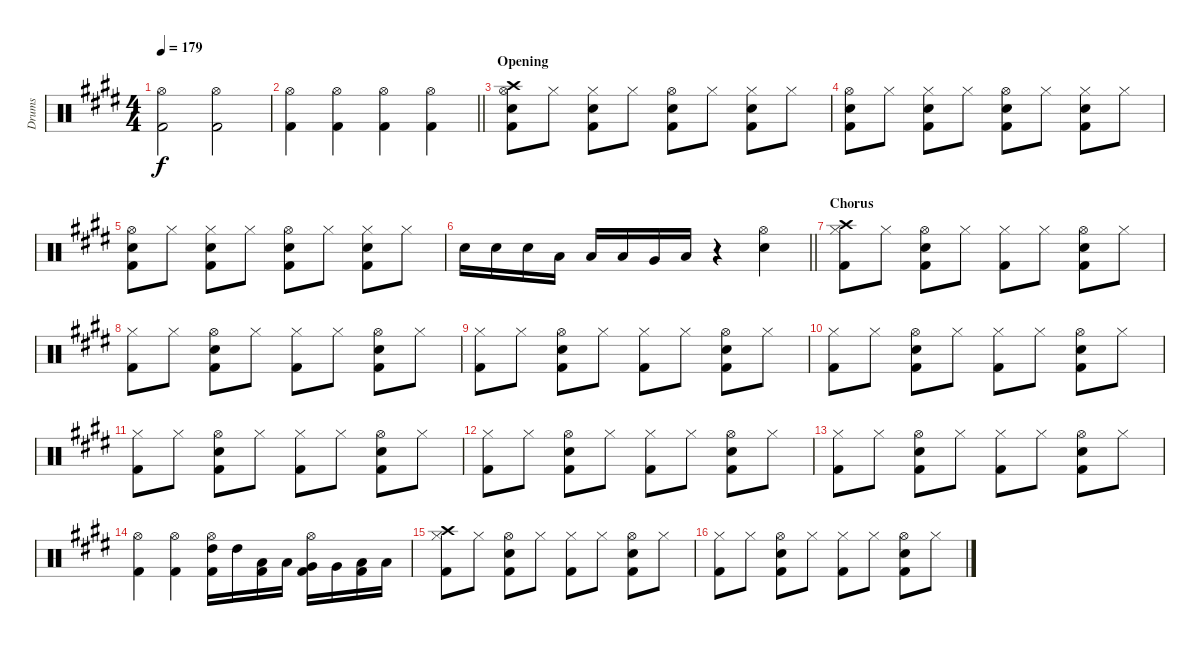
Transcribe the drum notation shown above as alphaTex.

\track ("Drums" "Drums") {instrument percussion}
\staff {score}
\articulation defaults
\ts (4 4)
\tempo 179
\clef neutral
\ks e
("Hi-Hat (open)" "Kick (hit) 2").2{dy f} ("Hi-Hat (open)" "Kick (hit) 2").2 |
\barLineRight lightlight
("Hi-Hat (open)" "Kick (hit) 2").4 ("Hi-Hat (open)" "Kick (hit) 2").4 ("Hi-Hat (open)" "Kick (hit) 2").4 ("Hi-Hat (open)" "Kick (hit) 2").4 |
\section ("" "Opening")
("Hi-Hat (open)" "Snare (hit) 2" "Crash high (hit)" "Kick (hit) 2").8 "Hi-Hat (closed)".8 ("Hi-Hat (closed)" "Snare (hit) 2" "Kick (hit) 2").8 "Hi-Hat (closed)".8 ("Hi-Hat (open)" "Snare (hit) 2" "Kick (hit) 2").8 "Hi-Hat (closed)".8 ("Hi-Hat (closed)" "Snare (hit) 2" "Kick (hit) 2").8 "Hi-Hat (closed)".8 |
("Hi-Hat (open)" "Snare (hit) 2" "Kick (hit) 2").8 "Hi-Hat (closed)".8 ("Hi-Hat (closed)" "Snare (hit) 2" "Kick (hit) 2").8 "Hi-Hat (closed)".8 ("Hi-Hat (open)" "Snare (hit) 2" "Kick (hit) 2").8 "Hi-Hat (closed)".8 ("Hi-Hat (closed)" "Snare (hit) 2" "Kick (hit) 2").8 "Hi-Hat (closed)".8 |
("Hi-Hat (open)" "Snare (hit) 2" "Kick (hit) 2").8 "Hi-Hat (closed)".8 ("Hi-Hat (closed)" "Snare (hit) 2" "Kick (hit) 2").8 "Hi-Hat (closed)".8 ("Hi-Hat (open)" "Snare (hit) 2" "Kick (hit) 2").8 "Hi-Hat (closed)".8 ("Hi-Hat (closed)" "Snare (hit) 2" "Kick (hit) 2").8 "Hi-Hat (closed)".8 |
\barLineRight lightlight "Snare (hit) 2".16 "Snare (hit) 2".16 "Snare (hit) 2".16 "Low Tom (hit)".16 "Low Tom (hit)".16 "Low Tom (hit)".16 "Very Low Tom (hit)".16 "Low Floor Tom (hit)".16
r.4 ("Hi-Hat (open)" "Snare (hit) 2").4 |
\section ("" "Chorus")
("Hi-Hat (closed)" "Crash high (hit)" "Kick (hit) 2").8 "Hi-Hat (closed)".8 ("Hi-Hat (open)" "Snare (hit) 2" "Kick (hit) 2").8 "Hi-Hat (closed)".8 ("Hi-Hat (closed)" "Kick (hit) 2").8 "Hi-Hat (closed)".8 ("Hi-Hat (open)" "Snare (hit) 2" "Kick (hit) 2").8 "Hi-Hat (closed)".8 |
("Hi-Hat (closed)" "Kick (hit) 2").8 "Hi-Hat (closed)".8 ("Hi-Hat (open)" "Snare (hit) 2" "Kick (hit) 2").8 "Hi-Hat (closed)".8 ("Hi-Hat (closed)" "Kick (hit) 2").8 "Hi-Hat (closed)".8 ("Hi-Hat (open)" "Snare (hit) 2" "Kick (hit) 2").8 "Hi-Hat (closed)".8 |
("Hi-Hat (closed)" "Kick (hit) 2").8 "Hi-Hat (closed)".8 ("Hi-Hat (open)" "Snare (hit) 2" "Kick (hit) 2").8 "Hi-Hat (closed)".8 ("Hi-Hat (closed)" "Kick (hit) 2").8 "Hi-Hat (closed)".8 ("Hi-Hat (open)" "Snare (hit) 2" "Kick (hit) 2").8 "Hi-Hat (closed)".8 |
("Hi-Hat (closed)" "Kick (hit) 2").8 "Hi-Hat (closed)".8 ("Hi-Hat (open)" "Snare (hit) 2" "Kick (hit) 2").8 "Hi-Hat (closed)".8 ("Hi-Hat (closed)" "Kick (hit) 2").8 "Hi-Hat (closed)".8 ("Hi-Hat (open)" "Snare (hit) 2" "Kick (hit) 2").8 "Hi-Hat (closed)".8 |
("Hi-Hat (closed)" "Kick (hit) 2").8 "Hi-Hat (closed)".8 ("Hi-Hat (open)" "Snare (hit) 2" "Kick (hit) 2").8 "Hi-Hat (closed)".8 ("Hi-Hat (closed)" "Kick (hit) 2").8 "Hi-Hat (closed)".8 ("Hi-Hat (open)" "Snare (hit) 2" "Kick (hit) 2").8 "Hi-Hat (closed)".8 |
("Hi-Hat (closed)" "Kick (hit) 2").8 "Hi-Hat (closed)".8 ("Hi-Hat (open)" "Snare (hit) 2" "Kick (hit) 2").8 "Hi-Hat (closed)".8 ("Hi-Hat (closed)" "Kick (hit) 2").8 "Hi-Hat (closed)".8 ("Hi-Hat (open)" "Snare (hit) 2" "Kick (hit) 2").8 "Hi-Hat (closed)".8 |
("Hi-Hat (closed)" "Kick (hit) 2").8 "Hi-Hat (closed)".8 ("Hi-Hat (open)" "Snare (hit) 2" "Kick (hit) 2").8 "Hi-Hat (closed)".8 ("Hi-Hat (closed)" "Kick (hit) 2").8 "Hi-Hat (closed)".8 ("Hi-Hat (open)" "Snare (hit) 2" "Kick (hit) 2").8 "Hi-Hat (closed)".8 |
("Hi-Hat (open)" "Kick (hit) 2").4 ("Hi-Hat (open)" "Kick (hit) 2").4 ("Hi-Hat (open)" "High Tom (hit)" "Kick (hit) 2").16 "High Tom (hit)".16 ("Low Tom (hit)" "Kick (hit) 2").16 "Low Tom (hit)".16 ("Hi-Hat (open)" "Very Low Tom (hit)" "Kick (hit) 2").16 "Very Low Tom (hit)".16 ("Low Floor Tom (hit)" "Kick (hit) 2").16 "Low Floor Tom (hit)".16 |
("Hi-Hat (closed)" "Crash high (hit)" "Kick (hit) 2").8 "Hi-Hat (closed)".8 ("Hi-Hat (open)" "Snare (hit) 2" "Kick (hit) 2").8 "Hi-Hat (closed)".8 ("Hi-Hat (closed)" "Kick (hit) 2").8 "Hi-Hat (closed)".8 ("Hi-Hat (open)" "Snare (hit) 2" "Kick (hit) 2").8 "Hi-Hat (closed)".8 |
("Hi-Hat (closed)" "Kick (hit) 2").8 "Hi-Hat (closed)".8 ("Hi-Hat (open)" "Snare (hit) 2" "Kick (hit) 2").8 "Hi-Hat (closed)".8 ("Hi-Hat (closed)" "Kick (hit) 2").8 "Hi-Hat (closed)".8 ("Hi-Hat (open)" "Snare (hit) 2" "Kick (hit) 2").8 "Hi-Hat (closed)".8
